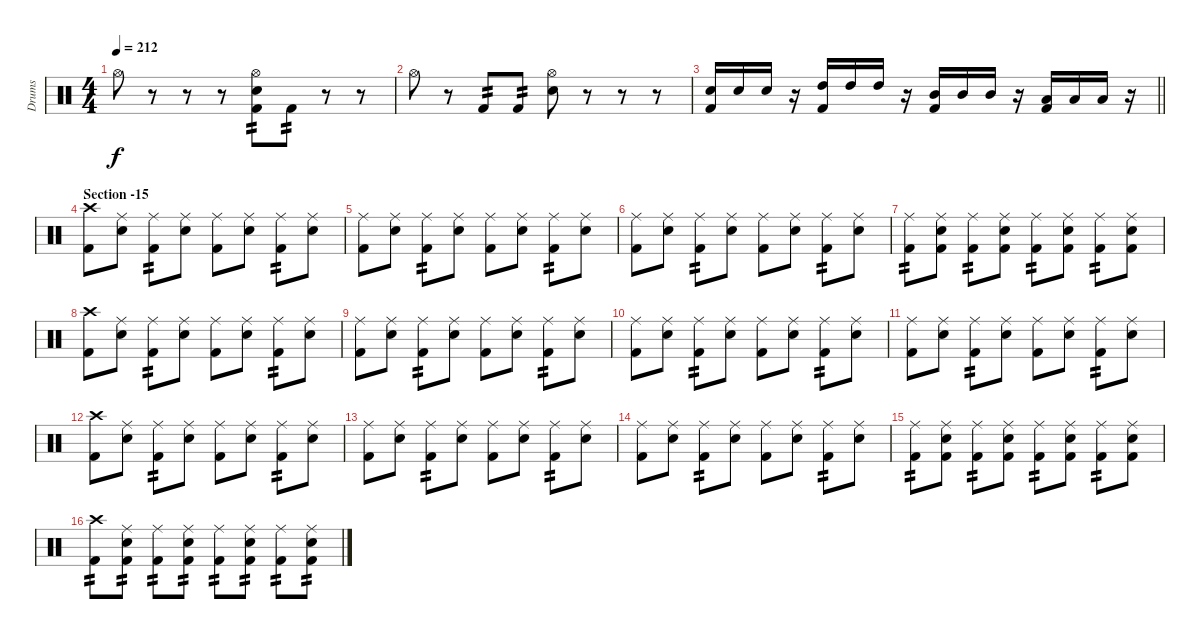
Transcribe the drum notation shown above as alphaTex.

\track ("Drums" "Drums") {instrument percussion}
\staff {score}
\articulation defaults
\ts (4 4)
\tempo 212
\clef neutral
\ks c "Hi-Hat (open)".8{dy f}
r.8 r.8 r.8 ("Hi-Hat (open)" "Snare (hit) 2" "Kick (hit) 2").8{tp 2} "Kick (hit) 2".8{tp 2} r.8 r.8 |
"Hi-Hat (open)".8 r.8 "Kick (hit) 2".8{tp 2} "Kick (hit) 2".8{tp 2} ("Hi-Hat (open)" "Snare (hit) 2").8 r.8 r.8 r.8 |
\barLineRight lightlight
("Snare (hit) 2" "Kick (hit) 2").16 "Snare (hit) 2".16 "Snare (hit) 2".16 r.16 ("High Tom (hit)" "Kick (hit) 2").16 "High Tom (hit)".16 "High Tom (hit)".16 r.16 ("Mid Tom (hit)" "Kick (hit) 2").16 "Mid Tom (hit)".16 "Mid Tom (hit)".16 r.16 ("Low Tom (hit)" "Kick (hit) 2").16 "Low Tom (hit)".16 "Low Tom (hit)".16 r.16 |
\section ("" "Section -15")
("Crash high (hit)" "Kick (hit) 2").8 ("Ride (middle)" "Snare (hit) 2").8 ("Ride (middle)" "Kick (hit) 2").8{tp 2} ("Ride (middle)" "Snare (hit) 2").8 ("Ride (middle)" "Kick (hit) 2").8 ("Ride (middle)" "Snare (hit) 2").8 ("Ride (middle)" "Kick (hit) 2").8{tp 2} ("Ride (middle)" "Snare (hit) 2").8 |
("Ride (middle)" "Kick (hit) 2").8 ("Ride (middle)" "Snare (hit) 2").8 ("Ride (middle)" "Kick (hit) 2").8{tp 2} ("Ride (middle)" "Snare (hit) 2").8 ("Ride (middle)" "Kick (hit) 2").8 ("Ride (middle)" "Snare (hit) 2").8 ("Ride (middle)" "Kick (hit) 2").8{tp 2} ("Ride (middle)" "Snare (hit) 2").8 |
("Ride (middle)" "Kick (hit) 2").8 ("Ride (middle)" "Snare (hit) 2").8 ("Ride (middle)" "Kick (hit) 2").8{tp 2} ("Ride (middle)" "Snare (hit) 2").8 ("Ride (middle)" "Kick (hit) 2").8 ("Ride (middle)" "Snare (hit) 2").8 ("Ride (middle)" "Kick (hit) 2").8{tp 2} ("Ride (middle)" "Snare (hit) 2").8 |
("Ride (middle)" "Kick (hit) 2").8{tp 2} ("Ride (middle)" "Snare (hit) 2" "Kick (hit) 2").8 ("Ride (middle)" "Kick (hit) 2").8{tp 2} ("Ride (middle)" "Snare (hit) 2" "Kick (hit) 2").8 ("Ride (middle)" "Kick (hit) 2").8{tp 2} ("Ride (middle)" "Snare (hit) 2" "Kick (hit) 2").8 ("Ride (middle)" "Kick (hit) 2").8{tp 2} ("Ride (middle)" "Snare (hit) 2" "Kick (hit) 2").8 |
("Crash high (hit)" "Kick (hit) 2").8 ("Ride (middle)" "Snare (hit) 2").8 ("Ride (middle)" "Kick (hit) 2").8{tp 2} ("Ride (middle)" "Snare (hit) 2").8 ("Ride (middle)" "Kick (hit) 2").8 ("Ride (middle)" "Snare (hit) 2").8 ("Ride (middle)" "Kick (hit) 2").8{tp 2} ("Ride (middle)" "Snare (hit) 2").8 |
("Ride (middle)" "Kick (hit) 2").8 ("Ride (middle)" "Snare (hit) 2").8 ("Ride (middle)" "Kick (hit) 2").8{tp 2} ("Ride (middle)" "Snare (hit) 2").8 ("Ride (middle)" "Kick (hit) 2").8 ("Ride (middle)" "Snare (hit) 2").8 ("Ride (middle)" "Kick (hit) 2").8{tp 2} ("Ride (middle)" "Snare (hit) 2").8 |
("Ride (middle)" "Kick (hit) 2").8 ("Ride (middle)" "Snare (hit) 2").8 ("Ride (middle)" "Kick (hit) 2").8{tp 2} ("Ride (middle)" "Snare (hit) 2").8 ("Ride (middle)" "Kick (hit) 2").8 ("Ride (middle)" "Snare (hit) 2").8 ("Ride (middle)" "Kick (hit) 2").8{tp 2} ("Ride (middle)" "Snare (hit) 2").8 |
("Ride (middle)" "Kick (hit) 2").8 ("Ride (middle)" "Snare (hit) 2").8 ("Ride (middle)" "Kick (hit) 2").8{tp 2} ("Ride (middle)" "Snare (hit) 2").8 ("Ride (middle)" "Kick (hit) 2").8 ("Ride (middle)" "Snare (hit) 2").8 ("Ride (middle)" "Kick (hit) 2").8{tp 2} ("Ride (middle)" "Snare (hit) 2").8 |
("Crash high (hit)" "Kick (hit) 2").8 ("Ride (middle)" "Snare (hit) 2").8 ("Ride (middle)" "Kick (hit) 2").8{tp 2} ("Ride (middle)" "Snare (hit) 2").8 ("Ride (middle)" "Kick (hit) 2").8 ("Ride (middle)" "Snare (hit) 2").8 ("Ride (middle)" "Kick (hit) 2").8{tp 2} ("Ride (middle)" "Snare (hit) 2").8 |
("Ride (middle)" "Kick (hit) 2").8 ("Ride (middle)" "Snare (hit) 2").8 ("Ride (middle)" "Kick (hit) 2").8{tp 2} ("Ride (middle)" "Snare (hit) 2").8 ("Ride (middle)" "Kick (hit) 2").8 ("Ride (middle)" "Snare (hit) 2").8 ("Ride (middle)" "Kick (hit) 2").8{tp 2} ("Ride (middle)" "Snare (hit) 2").8 |
("Ride (middle)" "Kick (hit) 2").8 ("Ride (middle)" "Snare (hit) 2").8 ("Ride (middle)" "Kick (hit) 2").8{tp 2} ("Ride (middle)" "Snare (hit) 2").8 ("Ride (middle)" "Kick (hit) 2").8 ("Ride (middle)" "Snare (hit) 2").8 ("Ride (middle)" "Kick (hit) 2").8{tp 2} ("Ride (middle)" "Snare (hit) 2").8 |
("Ride (middle)" "Kick (hit) 2").8{tp 2} ("Ride (middle)" "Snare (hit) 2" "Kick (hit) 2").8 ("Ride (middle)" "Kick (hit) 2").8{tp 2} ("Ride (middle)" "Snare (hit) 2" "Kick (hit) 2").8 ("Ride (middle)" "Kick (hit) 2").8{tp 2} ("Ride (middle)" "Snare (hit) 2" "Kick (hit) 2").8 ("Ride (middle)" "Kick (hit) 2").8{tp 2} ("Ride (middle)" "Snare (hit) 2" "Kick (hit) 2").8 |
("Crash high (hit)" "Kick (hit) 2").8{tp 2} ("Ride (middle)" "Snare (hit) 2" "Kick (hit) 2").8{tp 2} ("Ride (middle)" "Kick (hit) 2").8{tp 2} ("Ride (middle)" "Snare (hit) 2" "Kick (hit) 2").8{tp 2} ("Ride (middle)" "Kick (hit) 2").8{tp 2} ("Ride (middle)" "Snare (hit) 2" "Kick (hit) 2").8{tp 2} ("Ride (middle)" "Kick (hit) 2").8{tp 2} ("Ride (middle)" "Snare (hit) 2" "Kick (hit) 2").8{tp 2}
